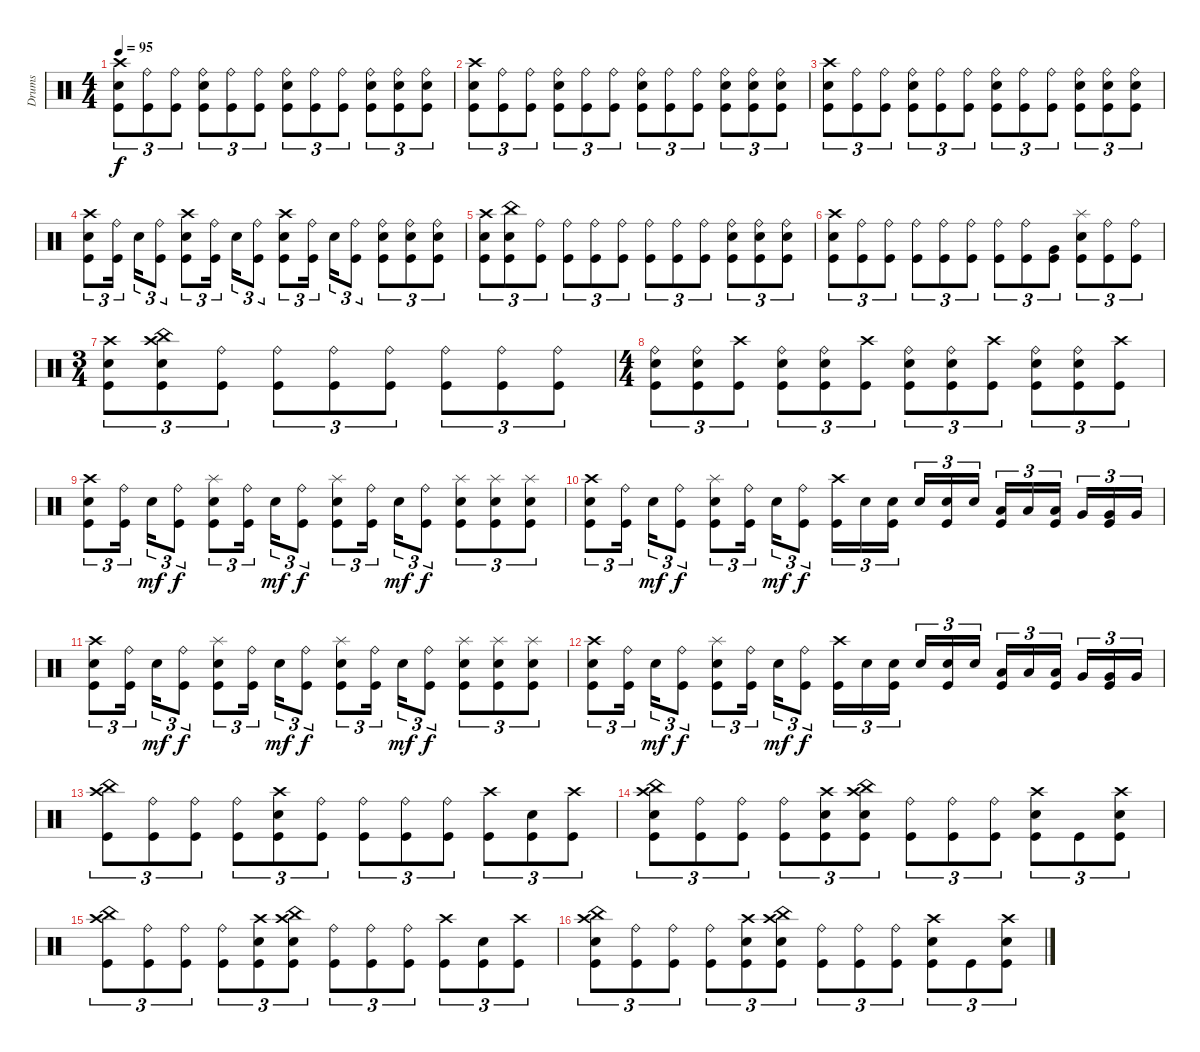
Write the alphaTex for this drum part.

\track ("Drums" "Drums") {instrument percussion}
\staff {score}
\articulation defaults
\ts (4 4)
\tempo 95
\clef neutral
\ks c
("Crash high (hit)" "Electric Snare (hit)" "Kick (hit)").8{tu (3 2) dy f} ("Ride (bell)" "Kick (hit)").8{tu (3 2)} ("Ride (bell)" "Kick (hit)").8{tu (3 2)} ("Ride (bell)" "Electric Snare (hit)" "Kick (hit)").8{tu (3 2)} ("Ride (bell)" "Kick (hit)").8{tu (3 2)} ("Ride (bell)" "Kick (hit)").8{tu (3 2)} ("Ride (bell)" "Electric Snare (hit)" "Kick (hit)").8{tu (3 2)} ("Ride (bell)" "Kick (hit)").8{tu (3 2)} ("Ride (bell)" "Kick (hit)").8{tu (3 2)} ("Ride (bell)" "Electric Snare (hit)" "Kick (hit)").8{tu (3 2)} ("Ride (bell)" "Electric Snare (hit)" "Kick (hit)").8{tu (3 2)} ("Ride (bell)" "Electric Snare (hit)" "Kick (hit)").8{tu (3 2)} |
("Crash high (hit)" "Electric Snare (hit)" "Kick (hit)").8{tu (3 2)} ("Ride (bell)" "Kick (hit)").8{tu (3 2)} ("Ride (bell)" "Kick (hit)").8{tu (3 2)} ("Ride (bell)" "Electric Snare (hit)" "Kick (hit)").8{tu (3 2)} ("Ride (bell)" "Kick (hit)").8{tu (3 2)} ("Ride (bell)" "Kick (hit)").8{tu (3 2)} ("Ride (bell)" "Electric Snare (hit)" "Kick (hit)").8{tu (3 2)} ("Ride (bell)" "Kick (hit)").8{tu (3 2)} ("Ride (bell)" "Kick (hit)").8{tu (3 2)} ("Ride (bell)" "Electric Snare (hit)" "Kick (hit)").8{tu (3 2)} ("Ride (bell)" "Electric Snare (hit)" "Kick (hit)").8{tu (3 2)} ("Ride (bell)" "Electric Snare (hit)" "Kick (hit)").8{tu (3 2)} |
("Crash high (hit)" "Electric Snare (hit)" "Kick (hit)").8{tu (3 2)} ("Ride (bell)" "Kick (hit)").8{tu (3 2)} ("Ride (bell)" "Kick (hit)").8{tu (3 2)} ("Ride (bell)" "Electric Snare (hit)" "Kick (hit)").8{tu (3 2)} ("Ride (bell)" "Kick (hit)").8{tu (3 2)} ("Ride (bell)" "Kick (hit)").8{tu (3 2)} ("Ride (bell)" "Electric Snare (hit)" "Kick (hit)").8{tu (3 2)} ("Ride (bell)" "Kick (hit)").8{tu (3 2)} ("Ride (bell)" "Kick (hit)").8{tu (3 2)} ("Ride (bell)" "Electric Snare (hit)" "Kick (hit)").8{tu (3 2)} ("Ride (bell)" "Electric Snare (hit)" "Kick (hit)").8{tu (3 2)} ("Ride (bell)" "Electric Snare (hit)" "Kick (hit)").8{tu (3 2)} |
("Crash high (hit)" "Electric Snare (hit)" "Kick (hit)").8{tu (3 2)} ("Ride (bell)" "Kick (hit)").16{tu (3 2)} "Electric Snare (hit)".16{tu (3 2)} ("Ride (bell)" "Kick (hit)").8{tu (3 2)} ("Crash high (hit)" "Electric Snare (hit)" "Kick (hit)").8{tu (3 2)} ("Ride (bell)" "Kick (hit)").16{tu (3 2)} "Electric Snare (hit)".16{tu (3 2)} ("Ride (bell)" "Kick (hit)").8{tu (3 2)} ("Crash high (hit)" "Electric Snare (hit)" "Kick (hit)").8{tu (3 2)} ("Ride (bell)" "Kick (hit)").16{tu (3 2)} "Electric Snare (hit)".16{tu (3 2)} ("Ride (bell)" "Kick (hit)").8{tu (3 2)} ("Ride (bell)" "Electric Snare (hit)" "Kick (hit)").8{tu (3 2)} ("Ride (bell)" "Electric Snare (hit)" "Kick (hit)").8{tu (3 2)} ("Ride (bell)" "Electric Snare (hit)" "Kick (hit)").8{tu (3 2)} |
("Crash high (hit)" "Electric Snare (hit)" "Kick (hit)").8{tu (3 2)} ("China (hit)" "Electric Snare (hit)" "Kick (hit)").8{tu (3 2)} ("Ride (bell)" "Kick (hit)").8{tu (3 2)} ("Ride (bell)" "Kick (hit)").8{tu (3 2)} ("Ride (bell)" "Kick (hit)").8{tu (3 2)} ("Ride (bell)" "Kick (hit)").8{tu (3 2)} ("Ride (bell)" "Kick (hit)").8{tu (3 2)} ("Ride (bell)" "Kick (hit)").8{tu (3 2)} ("Ride (bell)" "Kick (hit)").8{tu (3 2)} ("Ride (bell)" "Electric Snare (hit)" "Kick (hit)").8{tu (3 2)} ("Ride (bell)" "Electric Snare (hit)" "Kick (hit)").8{tu (3 2)} ("Ride (bell)" "Electric Snare (hit)" "Kick (hit)").8{tu (3 2)} |
("Crash high (hit)" "Electric Snare (hit)" "Kick (hit)").8{tu (3 2)} ("Ride (bell)" "Kick (hit)").8{tu (3 2)} ("Ride (bell)" "Kick (hit)").8{tu (3 2)} ("Ride (bell)" "Kick (hit)").8{tu (3 2)} ("Ride (bell)" "Kick (hit)").8{tu (3 2)} ("Ride (bell)" "Kick (hit)").8{tu (3 2)} ("Ride (bell)" "Kick (hit)").8{tu (3 2)} ("Ride (bell)" "Kick (hit)").8{tu (3 2)} ("Very Low Tom (hit)" "Kick (hit)").8{tu (3 2)} ("Splash (hit)" "Electric Snare (hit)" "Kick (hit)").8{tu (3 2)} ("Ride (bell)" "Kick (hit)").8{tu (3 2)} ("Ride (bell)" "Kick (hit)").8{tu (3 2)} |
\ts (3 4)
("Crash high (hit)" "Electric Snare (hit)" "Kick (hit)").8{tu (3 2)} ("Crash high (hit)" "China (hit)" "Electric Snare (hit)" "Kick (hit)").8{tu (3 2)} ("Ride (bell)" "Kick (hit)").8{tu (3 2)} ("Ride (bell)" "Kick (hit)").8{tu (3 2)} ("Ride (bell)" "Kick (hit)").8{tu (3 2)} ("Ride (bell)" "Kick (hit)").8{tu (3 2)} ("Ride (bell)" "Kick (hit)").8{tu (3 2)} ("Ride (bell)" "Kick (hit)").8{tu (3 2)} ("Ride (bell)" "Kick (hit)").8{tu (3 2)} |
\ts (4 4)
("Ride (bell)" "Electric Snare (hit)" "Kick (hit)").8{tu (3 2)} ("Ride (bell)" "Electric Snare (hit)" "Kick (hit)").8{tu (3 2)} ("Crash high (hit)" "Kick (hit)").8{tu (3 2)} ("Ride (bell)" "Electric Snare (hit)" "Kick (hit)").8{tu (3 2)} ("Ride (bell)" "Electric Snare (hit)" "Kick (hit)").8{tu (3 2)} ("Crash high (hit)" "Kick (hit)").8{tu (3 2)} ("Ride (bell)" "Electric Snare (hit)" "Kick (hit)").8{tu (3 2)} ("Ride (bell)" "Electric Snare (hit)" "Kick (hit)").8{tu (3 2)} ("Crash high (hit)" "Kick (hit)").8{tu (3 2)} ("Ride (bell)" "Electric Snare (hit)" "Kick (hit)").8{tu (3 2)} ("Ride (bell)" "Electric Snare (hit)" "Kick (hit)").8{tu (3 2)} ("Crash high (hit)" "Kick (hit)").8{tu (3 2)} |
("Crash high (hit)" "Electric Snare (hit)" "Kick (hit)").8{tu (3 2)} ("Ride (bell)" "Kick (hit)").16{tu (3 2)} "Electric Snare (hit)".16{tu (3 2) dy mf} ("Ride (bell)" "Kick (hit)").8{tu (3 2) dy f} ("Splash (hit)" "Electric Snare (hit)" "Kick (hit)").8{tu (3 2)} ("Ride (bell)" "Kick (hit)").16{tu (3 2)} "Electric Snare (hit)".16{tu (3 2) dy mf} ("Ride (bell)" "Kick (hit)").8{tu (3 2) dy f} ("Splash (hit)" "Electric Snare (hit)" "Kick (hit)").8{tu (3 2)} ("Ride (bell)" "Kick (hit)").16{tu (3 2)} "Electric Snare (hit)".16{tu (3 2) dy mf} ("Ride (bell)" "Kick (hit)").8{tu (3 2) dy f} ("Splash (hit)" "Electric Snare (hit)" "Kick (hit)").8{tu (3 2)} ("Splash (hit)" "Electric Snare (hit)" "Kick (hit)").8{tu (3 2)} ("Splash (hit)" "Electric Snare (hit)" "Kick (hit)").8{tu (3 2)} |
("Crash high (hit)" "Electric Snare (hit)" "Kick (hit)").8{tu (3 2)} ("Ride (bell)" "Kick (hit)").16{tu (3 2)} "Electric Snare (hit)".16{tu (3 2) dy mf} ("Ride (bell)" "Kick (hit)").8{tu (3 2) dy f} ("Splash (hit)" "Electric Snare (hit)" "Kick (hit)").8{tu (3 2)} ("Ride (bell)" "Kick (hit)").16{tu (3 2)} "Electric Snare (hit)".16{tu (3 2) dy mf} ("Ride (bell)" "Kick (hit)").8{tu (3 2) dy f} ("Crash high (hit)" "Kick (hit)").16{tu (3 2)} "Electric Snare (hit)".16{tu (3 2)} ("Electric Snare (hit)" "Kick (hit)").16{tu (3 2)} "Electric Snare (hit)".16{tu (3 2)} ("Electric Snare (hit)" "Kick (hit)").16{tu (3 2)} "Electric Snare (hit)".16{tu (3 2)} ("Low Tom (hit)" "Kick (hit)").16{tu (3 2)} "Low Tom (hit)".16{tu (3 2)} ("Low Tom (hit)" "Kick (hit)").16{tu (3 2)} "Very Low Tom (hit)".16{tu (3 2)} ("Very Low Tom (hit)" "Kick (hit)").16{tu (3 2)} "Very Low Tom (hit)".16{tu (3 2)} |
("Crash high (hit)" "Electric Snare (hit)" "Kick (hit)").8{tu (3 2)} ("Ride (bell)" "Kick (hit)").16{tu (3 2)} "Electric Snare (hit)".16{tu (3 2) dy mf} ("Ride (bell)" "Kick (hit)").8{tu (3 2) dy f} ("Splash (hit)" "Electric Snare (hit)" "Kick (hit)").8{tu (3 2)} ("Ride (bell)" "Kick (hit)").16{tu (3 2)} "Electric Snare (hit)".16{tu (3 2) dy mf} ("Ride (bell)" "Kick (hit)").8{tu (3 2) dy f} ("Splash (hit)" "Electric Snare (hit)" "Kick (hit)").8{tu (3 2)} ("Ride (bell)" "Kick (hit)").16{tu (3 2)} "Electric Snare (hit)".16{tu (3 2) dy mf} ("Ride (bell)" "Kick (hit)").8{tu (3 2) dy f} ("Splash (hit)" "Electric Snare (hit)" "Kick (hit)").8{tu (3 2)} ("Splash (hit)" "Electric Snare (hit)" "Kick (hit)").8{tu (3 2)} ("Splash (hit)" "Electric Snare (hit)" "Kick (hit)").8{tu (3 2)} |
("Crash high (hit)" "Electric Snare (hit)" "Kick (hit)").8{tu (3 2)} ("Ride (bell)" "Kick (hit)").16{tu (3 2)} "Electric Snare (hit)".16{tu (3 2) dy mf} ("Ride (bell)" "Kick (hit)").8{tu (3 2) dy f} ("Splash (hit)" "Electric Snare (hit)" "Kick (hit)").8{tu (3 2)} ("Ride (bell)" "Kick (hit)").16{tu (3 2)} "Electric Snare (hit)".16{tu (3 2) dy mf} ("Ride (bell)" "Kick (hit)").8{tu (3 2) dy f} ("Crash high (hit)" "Kick (hit)").16{tu (3 2)} "Electric Snare (hit)".16{tu (3 2)} ("Electric Snare (hit)" "Kick (hit)").16{tu (3 2)} "Electric Snare (hit)".16{tu (3 2)} ("Electric Snare (hit)" "Kick (hit)").16{tu (3 2)} "Electric Snare (hit)".16{tu (3 2)} ("Low Tom (hit)" "Kick (hit)").16{tu (3 2)} "Low Tom (hit)".16{tu (3 2)} ("Low Tom (hit)" "Kick (hit)").16{tu (3 2)} "Very Low Tom (hit)".16{tu (3 2)} ("Very Low Tom (hit)" "Kick (hit)").16{tu (3 2)} "Very Low Tom (hit)".16{tu (3 2)} |
("Crash high (hit)" "China (hit)" "Kick (hit)").8{tu (3 2)} ("Ride (bell)" "Kick (hit)").8{tu (3 2)} ("Ride (bell)" "Kick (hit)").8{tu (3 2)} ("Ride (bell)" "Kick (hit)").8{tu (3 2)} ("Crash high (hit)" "Electric Snare (hit)" "Kick (hit)").8{tu (3 2)} ("Ride (bell)" "Kick (hit)").8{tu (3 2)} ("Ride (bell)" "Kick (hit)").8{tu (3 2)} ("Ride (bell)" "Kick (hit)").8{tu (3 2)} ("Ride (bell)" "Kick (hit)").8{tu (3 2)} ("Crash high (hit)" "Kick (hit)").8{tu (3 2)} ("Electric Snare (hit)" "Kick (hit)").8{tu (3 2)} ("Crash high (hit)" "Kick (hit)").8{tu (3 2)} |
("Crash high (hit)" "China (hit)" "Electric Snare (hit)" "Kick (hit)").8{tu (3 2)} ("Ride (bell)" "Kick (hit)").8{tu (3 2)} ("Ride (bell)" "Kick (hit)").8{tu (3 2)} ("Ride (bell)" "Kick (hit)").8{tu (3 2)} ("Crash high (hit)" "Electric Snare (hit)" "Kick (hit)").8{tu (3 2)} ("Crash high (hit)" "China (hit)" "Electric Snare (hit)" "Kick (hit)").8{tu (3 2)} ("Ride (bell)" "Kick (hit)").8{tu (3 2)} ("Ride (bell)" "Kick (hit)").8{tu (3 2)} ("Ride (bell)" "Kick (hit)").8{tu (3 2)} ("Crash high (hit)" "Electric Snare (hit)" "Kick (hit)").8{tu (3 2)} "Kick (hit)".8{tu (3 2)} ("Crash high (hit)" "Electric Snare (hit)" "Kick (hit)").8{tu (3 2)} |
("Crash high (hit)" "China (hit)" "Kick (hit)").8{tu (3 2)} ("Ride (bell)" "Kick (hit)").8{tu (3 2)} ("Ride (bell)" "Kick (hit)").8{tu (3 2)} ("Ride (bell)" "Kick (hit)").8{tu (3 2)} ("Crash high (hit)" "Electric Snare (hit)" "Kick (hit)").8{tu (3 2)} ("Crash high (hit)" "China (hit)" "Electric Snare (hit)" "Kick (hit)").8{tu (3 2)} ("Ride (bell)" "Kick (hit)").8{tu (3 2)} ("Ride (bell)" "Kick (hit)").8{tu (3 2)} ("Ride (bell)" "Kick (hit)").8{tu (3 2)} ("Crash high (hit)" "Kick (hit)").8{tu (3 2)} ("Electric Snare (hit)" "Kick (hit)").8{tu (3 2)} ("Crash high (hit)" "Kick (hit)").8{tu (3 2)} |
("Crash high (hit)" "China (hit)" "Electric Snare (hit)" "Kick (hit)").8{tu (3 2)} ("Ride (bell)" "Kick (hit)").8{tu (3 2)} ("Ride (bell)" "Kick (hit)").8{tu (3 2)} ("Ride (bell)" "Kick (hit)").8{tu (3 2)} ("Crash high (hit)" "Electric Snare (hit)" "Kick (hit)").8{tu (3 2)} ("Crash high (hit)" "China (hit)" "Electric Snare (hit)" "Kick (hit)").8{tu (3 2)} ("Ride (bell)" "Kick (hit)").8{tu (3 2)} ("Ride (bell)" "Kick (hit)").8{tu (3 2)} ("Ride (bell)" "Kick (hit)").8{tu (3 2)} ("Crash high (hit)" "Electric Snare (hit)" "Kick (hit)").8{tu (3 2)} "Kick (hit)".8{tu (3 2)} ("Crash high (hit)" "Electric Snare (hit)" "Kick (hit)").8{tu (3 2)}
